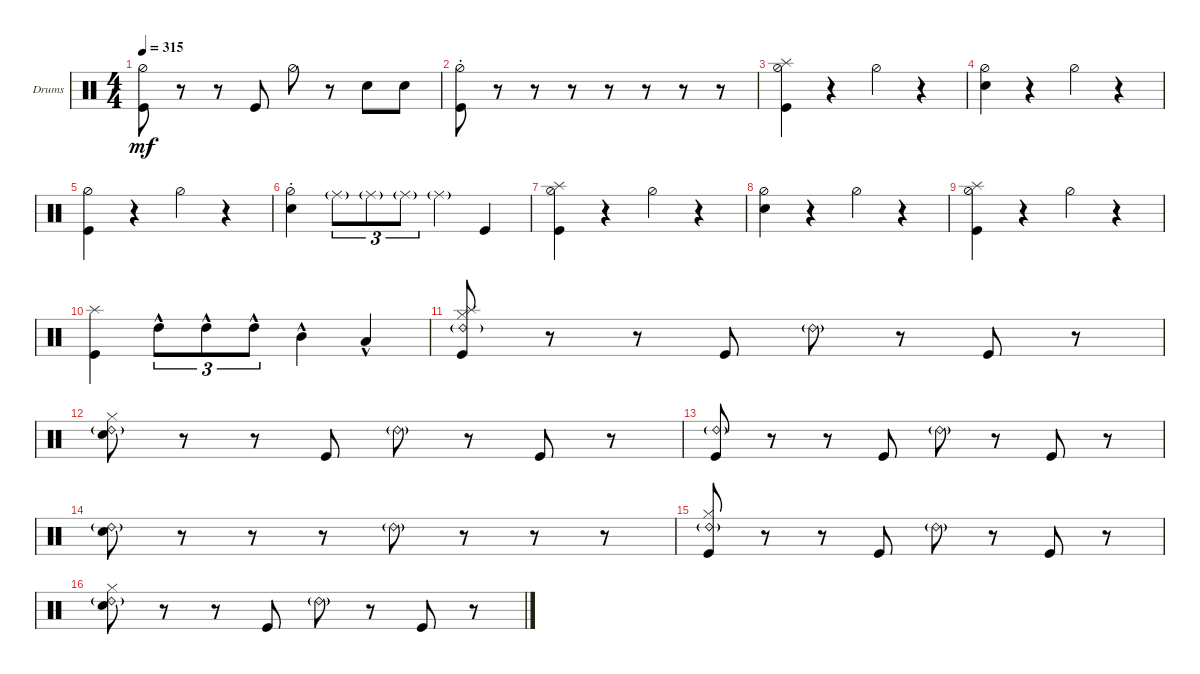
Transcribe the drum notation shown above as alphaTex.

\bracketExtendMode groupsimilarinstruments
\firstSystemTrackNameOrientation horizontal
\otherSystemsTrackNameOrientation horizontal
\track ("Drumkit" "Drums") {instrument percussion}
\staff {score}
\articulation defaults
\ts (4 4)
\tempo 315
\clef neutral
\ks c
("Kick (hit)" "Hi-Hat (half)").8{dy mf} r.8 r.8 "Kick (hit)".8 "Hi-Hat (half)".8 r.8 "Snare (hit) 2".8 "Snare (hit) 2".8 |
("Kick (hit)"{st} "Hi-Hat (half)"{st}).8 r.8 r.8 r.8 r.8 r.8 r.8 r.8 |
("Kick (hit)" "Hi-Hat (half)" "Splash (hit)").4 r.4 "Hi-Hat (half)".4 r.4 |
("Snare (hit) 2" "Hi-Hat (half)").4 r.4 "Hi-Hat (half)".4 r.4 |
("Kick (hit)" "Hi-Hat (half)").4 r.4 "Hi-Hat (half)".4 r.4 |
("Snare (hit) 2"{st} "Hi-Hat (half)").4 "Ride (middle)"{g}.8{tu (3 2)} "Ride (middle)"{g}.8{tu (3 2)} "Ride (middle)"{g}.8{tu (3 2)} "Ride (middle)"{g}.4 "Kick (hit)".4 |
("Kick (hit)" "Hi-Hat (half)" "Splash (hit)").4 r.4 "Hi-Hat (half)".4 r.4 |
("Snare (hit) 2" "Hi-Hat (half)").4 r.4 "Hi-Hat (half)".4 r.4 |
("Kick (hit)" "Hi-Hat (half)" "Splash (hit)").4 r.4 "Hi-Hat (half)".4 r.4 |
("Kick (hit)" "Splash (hit)").4 "High Tom (hit)"{hac}.8{tu (3 2)} "High Tom (hit)"{hac}.8{tu (3 2)} "High Tom (hit)"{hac}.8{tu (3 2)} "Mid Tom (hit)"{hac}.4 "Low Tom (hit)"{hac}.4 |
("Kick (hit)" "Hi-Hat (closed)" "Ride (bell) 2"{g} "Splash (hit)").8 r.8 r.8 "Kick (hit)".8 "Ride (bell) 2"{g}.8 r.8 "Kick (hit)".8 r.8 |
("Snare (hit) 2" "Hi-Hat (closed)" "Ride (bell) 2"{g}).8 r.8 r.8 "Kick (hit)".8 "Ride (bell) 2"{g}.8 r.8 "Kick (hit)".8 r.8 |
("Kick (hit)" "Ride (bell) 2"{g}).8 r.8 r.8 "Kick (hit)".8 "Ride (bell) 2"{g}.8 r.8 "Kick (hit)".8 r.8 |
("Snare (hit) 2" "Ride (bell) 2"{g}).8 r.8 r.8 r.8 "Ride (bell) 2"{g}.8 r.8 r.8 r.8 |
("Kick (hit)" "Hi-Hat (closed)" "Ride (bell) 2"{g}).8 r.8 r.8 "Kick (hit)".8 "Ride (bell) 2"{g}.8 r.8 "Kick (hit)".8 r.8 |
("Snare (hit) 2" "Hi-Hat (closed)" "Ride (bell) 2"{g}).8 r.8 r.8 "Kick (hit)".8 "Ride (bell) 2"{g}.8 r.8 "Kick (hit)".8 r.8
